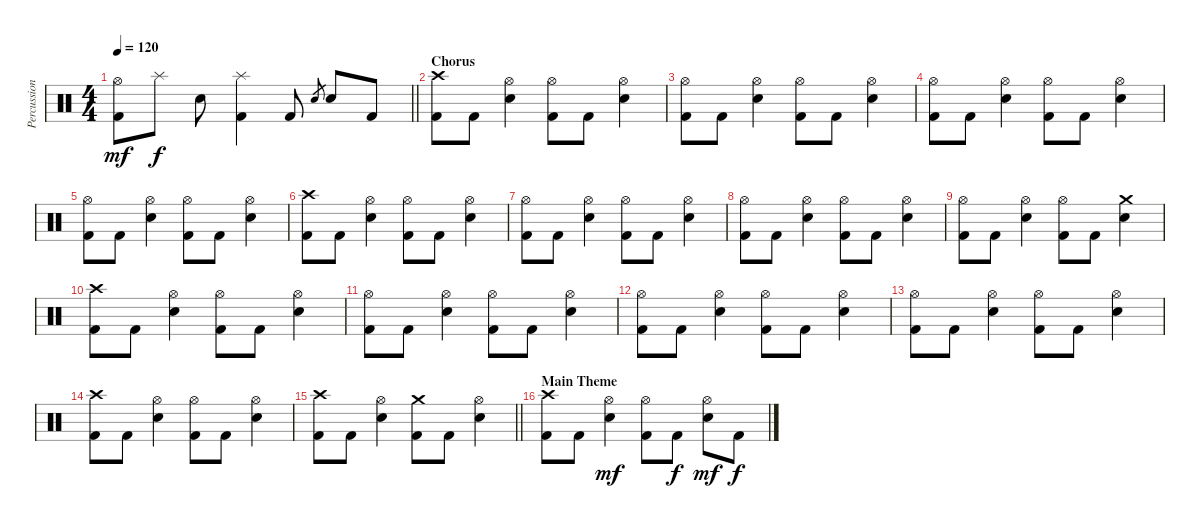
\track ("Percussion" "Percussion") {instrument percussion}
\staff {score}
\articulation defaults
\ts (4 4)
\tempo 120
\clef neutral
\barLineRight lightlight
\ks c
("Hi-Hat (open)" "Kick (hit) 2").8{dy mf} "Splash (hit)".8{dy f} "Electric Snare (hit)".8 ("Splash (hit)" "Kick (hit) 2").4 "Kick (hit) 2".8 "Electric Snare (hit)".8{gr} "Electric Snare (hit)".8 "Kick (hit) 2".8 |
\section ("" "Chorus")
("Crash high (hit)" "Kick (hit) 2").8 "Kick (hit) 2".8 ("Hi-Hat (open)" "Electric Snare (hit)").4 ("Hi-Hat (open)" "Kick (hit) 2").8 "Kick (hit) 2".8 ("Hi-Hat (open)" "Electric Snare (hit)").4 |
("Hi-Hat (open)" "Kick (hit) 2").8 "Kick (hit) 2".8 ("Hi-Hat (open)" "Electric Snare (hit)").4 ("Hi-Hat (open)" "Kick (hit) 2").8 "Kick (hit) 2".8 ("Hi-Hat (open)" "Electric Snare (hit)").4 |
("Hi-Hat (open)" "Kick (hit) 2").8 "Kick (hit) 2".8 ("Hi-Hat (open)" "Electric Snare (hit)").4 ("Hi-Hat (open)" "Kick (hit) 2").8 "Kick (hit) 2".8 ("Hi-Hat (open)" "Electric Snare (hit)").4 |
("Hi-Hat (open)" "Kick (hit) 2").8 "Kick (hit) 2".8 ("Hi-Hat (open)" "Electric Snare (hit)").4 ("Hi-Hat (open)" "Kick (hit) 2").8 "Kick (hit) 2".8 ("Hi-Hat (open)" "Electric Snare (hit)").4 |
("Crash high (hit)" "Kick (hit) 2").8 "Kick (hit) 2".8 ("Hi-Hat (open)" "Electric Snare (hit)").4 ("Hi-Hat (open)" "Kick (hit) 2").8 "Kick (hit) 2".8 ("Hi-Hat (open)" "Electric Snare (hit)").4 |
("Hi-Hat (open)" "Kick (hit) 2").8 "Kick (hit) 2".8 ("Hi-Hat (open)" "Electric Snare (hit)").4 ("Hi-Hat (open)" "Kick (hit) 2").8 "Kick (hit) 2".8 ("Hi-Hat (open)" "Electric Snare (hit)").4 |
("Hi-Hat (open)" "Kick (hit) 2").8 "Kick (hit) 2".8 ("Hi-Hat (open)" "Electric Snare (hit)").4 ("Hi-Hat (open)" "Kick (hit) 2").8 "Kick (hit) 2".8 ("Hi-Hat (open)" "Electric Snare (hit)").4 |
("Hi-Hat (open)" "Kick (hit) 2").8 "Kick (hit) 2".8 ("Hi-Hat (open)" "Electric Snare (hit)").4 ("Hi-Hat (open)" "Kick (hit) 2").8 "Kick (hit) 2".8 ("Crash medium (hit)" "Electric Snare (hit)").4 |
("Crash high (hit)" "Kick (hit) 2").8 "Kick (hit) 2".8 ("Hi-Hat (open)" "Electric Snare (hit)").4 ("Hi-Hat (open)" "Kick (hit) 2").8 "Kick (hit) 2".8 ("Hi-Hat (open)" "Electric Snare (hit)").4 |
("Hi-Hat (open)" "Kick (hit) 2").8 "Kick (hit) 2".8 ("Hi-Hat (open)" "Electric Snare (hit)").4 ("Hi-Hat (open)" "Kick (hit) 2").8 "Kick (hit) 2".8 ("Hi-Hat (open)" "Electric Snare (hit)").4 |
("Hi-Hat (open)" "Kick (hit) 2").8 "Kick (hit) 2".8 ("Hi-Hat (open)" "Electric Snare (hit)").4 ("Hi-Hat (open)" "Kick (hit) 2").8 "Kick (hit) 2".8 ("Hi-Hat (open)" "Electric Snare (hit)").4 |
("Hi-Hat (open)" "Kick (hit) 2").8 "Kick (hit) 2".8 ("Hi-Hat (open)" "Electric Snare (hit)").4 ("Hi-Hat (open)" "Kick (hit) 2").8 "Kick (hit) 2".8 ("Hi-Hat (open)" "Electric Snare (hit)").4 |
("Crash high (hit)" "Kick (hit) 2").8 "Kick (hit) 2".8 ("Hi-Hat (open)" "Electric Snare (hit)").4 ("Hi-Hat (open)" "Kick (hit) 2").8 "Kick (hit) 2".8 ("Hi-Hat (open)" "Electric Snare (hit)").4 |
\barLineRight lightlight
("Crash high (hit)" "Kick (hit) 2").8 "Kick (hit) 2".8 ("Hi-Hat (open)" "Electric Snare (hit)").4 ("Crash medium (hit)" "Kick (hit) 2").8 "Kick (hit) 2".8 ("Hi-Hat (open)" "Electric Snare (hit)").4 |
\section ("" "Main Theme")
("Crash high (hit)" "Kick (hit) 2").8 "Kick (hit) 2".8 ("Hi-Hat (open)" "Electric Snare (hit)").4{dy mf} ("Hi-Hat (open)" "Kick (hit) 2").8 "Kick (hit) 2".8{dy f} ("Hi-Hat (open)" "Electric Snare (hit)").8{dy mf} "Kick (hit) 2".8{dy f}
